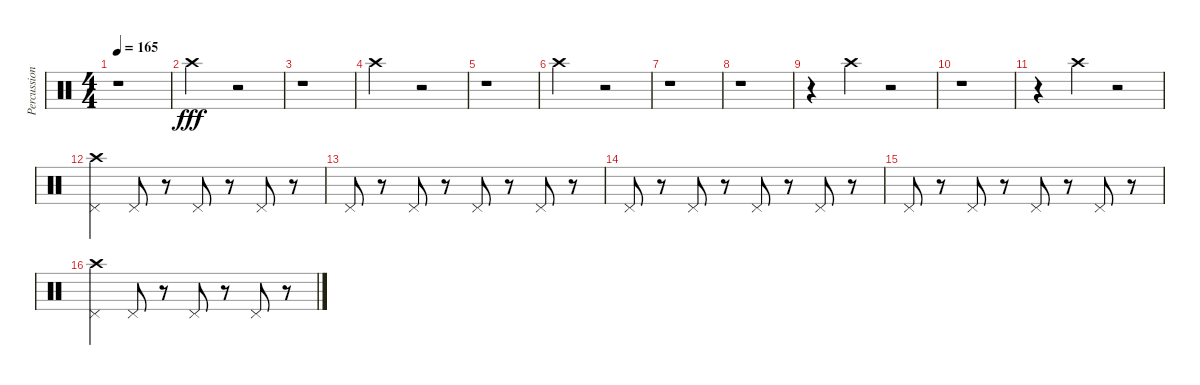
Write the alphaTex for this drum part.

\track ("Percussion" "Percussion") {instrument percussion}
\staff {score}
\articulation defaults
\ts (4 4)
\tempo 165
\clef neutral
\ks c
r.1{dy fff} |
"Crash high (hit)".2 r.2 |
r.1 |
"Crash high (hit)".2 r.2 |
r.1 |
"Crash high (hit)".2 r.2 |
r.1 |
r.1 |
r.4 "Crash high (hit)".4 r.2 |
r.1 |
r.4 "Crash high (hit)".4 r.2 |
("Crash high (hit)" "Pedal Hi-Hat (hit)").4 "Pedal Hi-Hat (hit)".8 r.8 "Pedal Hi-Hat (hit)".8 r.8 "Pedal Hi-Hat (hit)".8 r.8 |
"Pedal Hi-Hat (hit)".8 r.8 "Pedal Hi-Hat (hit)".8 r.8 "Pedal Hi-Hat (hit)".8 r.8 "Pedal Hi-Hat (hit)".8 r.8 |
"Pedal Hi-Hat (hit)".8 r.8 "Pedal Hi-Hat (hit)".8 r.8 "Pedal Hi-Hat (hit)".8 r.8 "Pedal Hi-Hat (hit)".8 r.8 |
"Pedal Hi-Hat (hit)".8 r.8 "Pedal Hi-Hat (hit)".8 r.8 "Pedal Hi-Hat (hit)".8 r.8 "Pedal Hi-Hat (hit)".8 r.8 |
("Crash high (hit)" "Pedal Hi-Hat (hit)").4 "Pedal Hi-Hat (hit)".8 r.8 "Pedal Hi-Hat (hit)".8 r.8 "Pedal Hi-Hat (hit)".8 r.8
